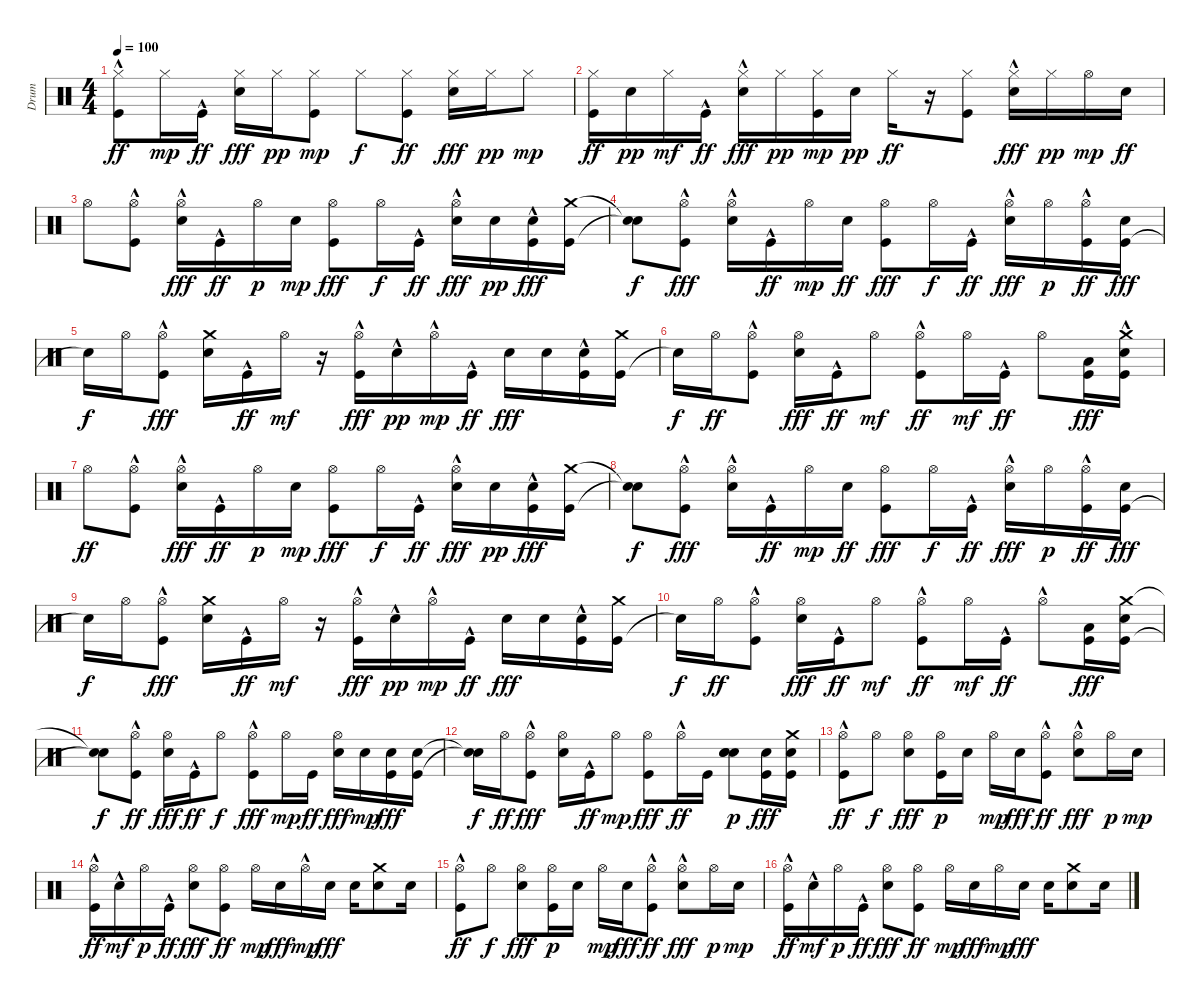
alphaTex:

\track ("Drum" "Drum") {instrument percussion}
\staff {score}
\articulation defaults
\ts (4 4)
\tempo 100
\clef neutral
\ks c
("Kick (hit)"{hac} "Hi-Hat (closed)").8{dy ff} "Hi-Hat (closed)".16{dy mp} "Kick (hit)"{hac}.16{dy ff} ("Hi-Hat (closed)" "Electric Snare (hit)").16{dy fff} "Hi-Hat (closed)".16{dy pp} ("Kick (hit)" "Hi-Hat (closed)").8{dy mp} "Hi-Hat (closed)".8{dy f} ("Hi-Hat (closed)" "Kick (hit)").8{dy ff} ("Hi-Hat (closed)" "Electric Snare (hit)").16{dy fff} "Hi-Hat (closed)".16{dy pp} "Hi-Hat (closed)".8{dy mp} |
("Hi-Hat (closed)" "Kick (hit)").16{dy ff} "Electric Snare (hit)".16{dy pp} "Hi-Hat (closed)".16{dy mf} "Kick (hit)"{hac}.16{dy ff} ("Electric Snare (hit)"{hac} "Hi-Hat (closed)").16{dy fff} "Hi-Hat (closed)".16{dy pp} ("Kick (hit)" "Hi-Hat (closed)").16{dy mp} "Electric Snare (hit)".16{dy pp} "Hi-Hat (closed)".16{dy ff} r.16 ("Hi-Hat (closed)" "Kick (hit)").8 ("Electric Snare (hit)"{hac} "Hi-Hat (closed)").16{dy fff} "Hi-Hat (closed)".16{dy pp} "Hi-Hat (open)".16{dy mp} "Electric Snare (hit)".16{dy ff} |
"Hi-Hat (open)".8 ("Kick (hit)"{hac} "Hi-Hat (open)").8 ("Electric Snare (hit)"{hac} "Hi-Hat (open)").16{dy fff} "Kick (hit)"{hac}.16{dy ff} "Hi-Hat (open)".16{dy p} "Electric Snare (hit)".16{dy mp} ("Kick (hit)" "Hi-Hat (open)").8{dy fff} "Hi-Hat (open)".16{dy f} "Kick (hit)"{hac}.16{dy ff} ("Electric Snare (hit)" "Hi-Hat (open)"{hac}).16{dy fff} "Electric Snare (hit)".16{dy pp} ("Kick (hit)" "Electric Snare (hit)"{hac}).16{dy fff} ("Kick (hit)" "Crash medium (hit)").16 |
("Snare (hit)"{t} "Snare (hit)"{t}).8{dy f} ("Kick (hit)"{hac} "Hi-Hat (open)").8{dy fff} ("Hi-Hat (open)" "Electric Snare (hit)"{hac}).16 "Kick (hit)"{hac}.16{dy ff} "Hi-Hat (open)".16{dy mp} "Electric Snare (hit)".16{dy ff} ("Kick (hit)" "Hi-Hat (open)").8{dy fff} "Hi-Hat (open)".16{dy f} "Kick (hit)"{hac}.16{dy ff} ("Electric Snare (hit)"{hac} "Hi-Hat (open)").16{dy fff} "Hi-Hat (open)".16{dy p} ("Kick (hit)" "Hi-Hat (open)"{hac}).16{dy ff} ("Kick (hit)" "Electric Snare (hit)").16{dy fff} |
"Snare (hit)"{t}.16{dy f} "Hi-Hat (open)".16 ("Kick (hit)"{hac} "Hi-Hat (open)").8{dy fff} ("Crash medium (hit)" "Electric Snare (hit)").16 "Kick (hit)"{hac}.16{dy ff} "Hi-Hat (open)".16{dy mf} r.16 ("Kick (hit)"{hac} "Hi-Hat (open)").16{dy fff} "Electric Snare (hit)"{hac}.16{dy pp} "Hi-Hat (open)"{hac}.16{dy mp} "Kick (hit)"{hac}.16{dy ff} "Electric Snare (hit)".16{dy fff} "Electric Snare (hit)".16 ("Kick (hit)" "Electric Snare (hit)"{hac}).16 ("Kick (hit)" "Crash medium (hit)").16 |
"Snare (hit)"{t}.16{dy f} "Hi-Hat (open)".16{dy ff} ("Kick (hit)"{hac} "Hi-Hat (open)").8 ("Electric Snare (hit)" "Hi-Hat (open)").16{dy fff} "Kick (hit)"{hac}.16{dy ff} "Hi-Hat (open)".8{dy mf} ("Kick (hit)"{hac} "Hi-Hat (open)").8{dy ff} "Hi-Hat (open)".16{dy mf} "Kick (hit)"{hac}.16{dy ff} "Hi-Hat (open)".8 ("Kick (hit)" "Low Floor Tom (hit)").16{dy fff} ("Kick (hit)"{hac} "Crash medium (hit)" "Electric Snare (hit)").16 |
"Hi-Hat (open)".8{dy ff} ("Kick (hit)"{hac} "Hi-Hat (open)").8 ("Electric Snare (hit)"{hac} "Hi-Hat (open)").16{dy fff} "Kick (hit)"{hac}.16{dy ff} "Hi-Hat (open)".16{dy p} "Electric Snare (hit)".16{dy mp} ("Kick (hit)" "Hi-Hat (open)").8{dy fff} "Hi-Hat (open)".16{dy f} "Kick (hit)"{hac}.16{dy ff} ("Electric Snare (hit)" "Hi-Hat (open)"{hac}).16{dy fff} "Electric Snare (hit)".16{dy pp} ("Kick (hit)" "Electric Snare (hit)"{hac}).16{dy fff} ("Kick (hit)" "Crash medium (hit)").16 |
("Snare (hit)"{t} "Snare (hit)"{t}).8{dy f} ("Kick (hit)"{hac} "Hi-Hat (open)").8{dy fff} ("Hi-Hat (open)" "Electric Snare (hit)"{hac}).16 "Kick (hit)"{hac}.16{dy ff} "Hi-Hat (open)".16{dy mp} "Electric Snare (hit)".16{dy ff} ("Kick (hit)" "Hi-Hat (open)").8{dy fff} "Hi-Hat (open)".16{dy f} "Kick (hit)"{hac}.16{dy ff} ("Electric Snare (hit)"{hac} "Hi-Hat (open)").16{dy fff} "Hi-Hat (open)".16{dy p} ("Kick (hit)" "Hi-Hat (open)"{hac}).16{dy ff} ("Kick (hit)" "Electric Snare (hit)").16{dy fff} |
"Snare (hit)"{t}.16{dy f} "Hi-Hat (open)".16 ("Kick (hit)"{hac} "Hi-Hat (open)").8{dy fff} ("Crash medium (hit)" "Electric Snare (hit)").16 "Kick (hit)"{hac}.16{dy ff} "Hi-Hat (open)".16{dy mf} r.16 ("Kick (hit)"{hac} "Hi-Hat (open)").16{dy fff} "Electric Snare (hit)"{hac}.16{dy pp} "Hi-Hat (open)"{hac}.16{dy mp} "Kick (hit)"{hac}.16{dy ff} "Electric Snare (hit)".16{dy fff} "Electric Snare (hit)".16 ("Kick (hit)" "Electric Snare (hit)"{hac}).16 ("Kick (hit)" "Crash medium (hit)").16 |
"Snare (hit)"{t}.16{dy f} "Hi-Hat (open)".16{dy ff} ("Kick (hit)"{hac} "Hi-Hat (open)").8 ("Electric Snare (hit)" "Hi-Hat (open)").16{dy fff} "Kick (hit)"{hac}.16{dy ff} "Hi-Hat (open)".8{dy mf} ("Kick (hit)"{hac} "Hi-Hat (open)").8{dy ff} "Hi-Hat (open)".16{dy mf} "Kick (hit)"{hac}.16{dy ff} "Hi-Hat (open)"{hac}.8 ("Kick (hit)" "Low Floor Tom (hit)").16{dy fff} ("Kick (hit)" "Crash medium (hit)" "Electric Snare (hit)").16 |
("Snare (hit)"{t} "Snare (hit)"{t}).8{dy f} ("Kick (hit)"{hac} "Hi-Hat (open)").8{dy ff} ("Hi-Hat (open)" "Electric Snare (hit)").16{dy fff} "Kick (hit)"{hac}.16{dy ff} "Hi-Hat (open)".8{dy f} ("Kick (hit)"{hac} "Hi-Hat (open)").8{dy fff} "Hi-Hat (open)".16{dy mp} "Kick (hit)".16{dy ff} ("Electric Snare (hit)" "Hi-Hat (open)").16{dy fff} "Electric Snare (hit)".16{dy mp} ("Kick (hit)" "Electric Snare (hit)").16{dy fff} ("Kick (hit)" "Electric Snare (hit)").16 |
("Snare (hit)"{t} "Snare (hit)"{t}).16{dy f} "Hi-Hat (open)".16{dy ff} ("Kick (hit)"{hac} "Hi-Hat (open)").8{dy fff} ("Hi-Hat (open)" "Electric Snare (hit)").16 "Kick (hit)"{hac}.16{dy ff} "Hi-Hat (open)".8{dy mp} ("Kick (hit)" "Hi-Hat (open)").8{dy fff} "Hi-Hat (open)"{hac}.16{dy ff} "Kick (hit)".16 ("Electric Snare (hit)" "Electric Snare (hit)" "Electric Snare (hit)").8{dy p} ("Kick (hit)" "Electric Snare (hit)").16{dy fff} ("Kick (hit)" "Crash medium (hit)" "Electric Snare (hit)").16 |
("Hi-Hat (open)" "Kick (hit)"{hac}).8{dy ff} "Hi-Hat (open)".8{dy f} ("Hi-Hat (open)" "Electric Snare (hit)").8{dy fff} ("Kick (hit)" "Hi-Hat (open)").16{dy p} "Electric Snare (hit)".16 "Hi-Hat (open)".16{dy mp} "Electric Snare (hit)".16{dy fff} ("Hi-Hat (open)" "Kick (hit)"{hac}).8{dy ff} ("Hi-Hat (open)" "Electric Snare (hit)"{hac}).8{dy fff} "Hi-Hat (open)".16{dy p} "Electric Snare (hit)".16{dy mp} |
("Hi-Hat (open)" "Kick (hit)"{hac}).16{dy ff} "Electric Snare (hit)"{hac}.16{dy mf} "Hi-Hat (open)".16{dy p} "Kick (hit)"{hac}.16{dy ff} ("Electric Snare (hit)" "Hi-Hat (open)").8{dy fff} ("Hi-Hat (open)" "Kick (hit)").8{dy ff} "Hi-Hat (open)".16{dy mp} "Electric Snare (hit)".16{dy fff} "Hi-Hat (open)"{hac}.16{dy mp} "Electric Snare (hit)".16{dy fff} "Electric Snare (hit)".16 ("Electric Snare (hit)" "Crash medium (hit)").8 "Electric Snare (hit)".16 |
("Hi-Hat (open)" "Kick (hit)"{hac}).8{dy ff} "Hi-Hat (open)".8{dy f} ("Hi-Hat (open)" "Electric Snare (hit)").8{dy fff} ("Kick (hit)" "Hi-Hat (open)").16{dy p} "Electric Snare (hit)".16 "Hi-Hat (open)".16{dy mp} "Electric Snare (hit)".16{dy fff} ("Hi-Hat (open)" "Kick (hit)"{hac}).8{dy ff} ("Hi-Hat (open)" "Electric Snare (hit)"{hac}).8{dy fff} "Hi-Hat (open)".16{dy p} "Electric Snare (hit)".16{dy mp} |
("Hi-Hat (open)" "Kick (hit)"{hac}).16{dy ff} "Electric Snare (hit)"{hac}.16{dy mf} "Hi-Hat (open)".16{dy p} "Kick (hit)"{hac}.16{dy ff} ("Electric Snare (hit)" "Hi-Hat (open)").8{dy fff} ("Hi-Hat (open)" "Kick (hit)").8{dy ff} "Hi-Hat (open)".16{dy mp} "Electric Snare (hit)".16{dy fff} "Hi-Hat (open)".16{dy mp} "Electric Snare (hit)".16{dy fff} "Electric Snare (hit)".16 ("Electric Snare (hit)" "Crash medium (hit)").8 "Electric Snare (hit)".16
